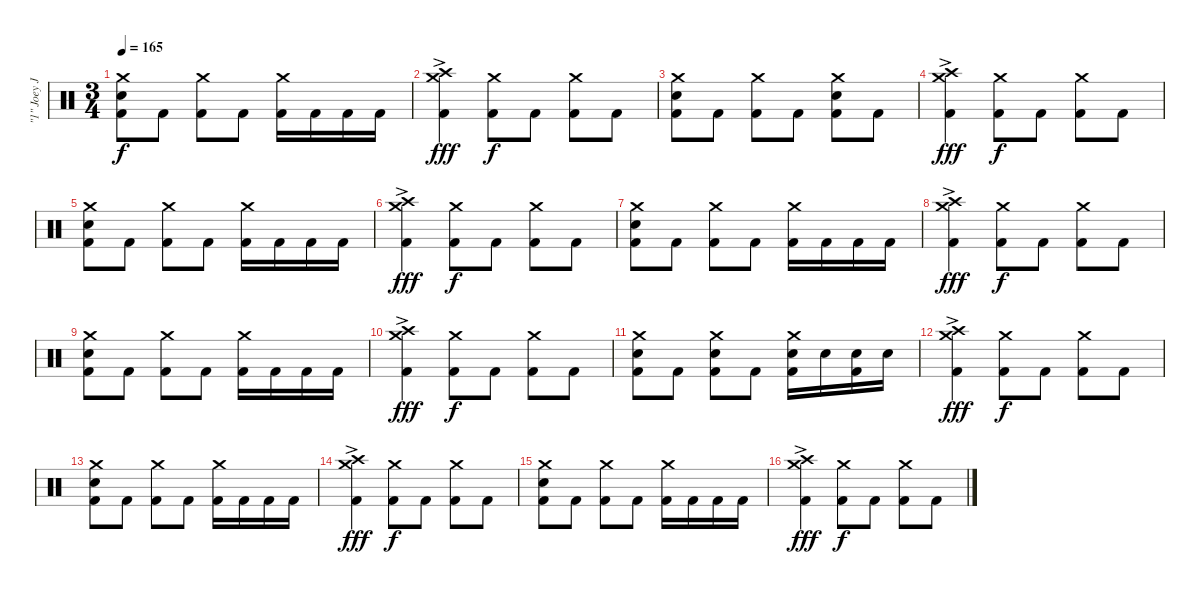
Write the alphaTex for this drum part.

\track ("\"1\" Joey Jordison (Drums)" "\"1\" Joey J") {instrument percussion}
\staff {score}
\articulation defaults
\ts (3 4)
\tempo 165
\clef neutral
\ks c
("Crash medium (hit)" "Electric Snare (hit)" "Kick (hit) 2").8{dy f} "Kick (hit) 2".8 ("Crash medium (hit)" "Kick (hit) 2").8 "Kick (hit) 2".8 ("Crash medium (hit)" "Kick (hit) 2").16 "Kick (hit) 2".16 "Kick (hit) 2".16 "Kick (hit) 2".16 |
("Crash high (hit)"{ac} "Crash medium (hit)" "Kick (hit) 2").4{dy fff} ("Crash medium (hit)" "Kick (hit) 2").8{dy f} "Kick (hit) 2".8 ("Crash medium (hit)" "Kick (hit) 2").8 "Kick (hit) 2".8 |
("Crash medium (hit)" "Electric Snare (hit)" "Kick (hit) 2").8 "Kick (hit) 2".8 ("Crash medium (hit)" "Kick (hit) 2").8 "Kick (hit) 2".8 ("Crash medium (hit)" "Electric Snare (hit)" "Kick (hit) 2").8 "Kick (hit) 2".8 |
("Crash high (hit)"{ac} "Crash medium (hit)" "Kick (hit) 2").4{dy fff} ("Crash medium (hit)" "Kick (hit) 2").8{dy f} "Kick (hit) 2".8 ("Crash medium (hit)" "Kick (hit) 2").8 "Kick (hit) 2".8 |
("Crash medium (hit)" "Electric Snare (hit)" "Kick (hit) 2").8 "Kick (hit) 2".8 ("Crash medium (hit)" "Kick (hit) 2").8 "Kick (hit) 2".8 ("Crash medium (hit)" "Kick (hit) 2").16 "Kick (hit) 2".16 "Kick (hit) 2".16 "Kick (hit) 2".16 |
("Crash high (hit)"{ac} "Crash medium (hit)" "Kick (hit) 2").4{dy fff} ("Crash medium (hit)" "Kick (hit) 2").8{dy f} "Kick (hit) 2".8 ("Crash medium (hit)" "Kick (hit) 2").8 "Kick (hit) 2".8 |
("Crash medium (hit)" "Electric Snare (hit)" "Kick (hit) 2").8 "Kick (hit) 2".8 ("Crash medium (hit)" "Kick (hit) 2").8 "Kick (hit) 2".8 ("Crash medium (hit)" "Kick (hit) 2").16 "Kick (hit) 2".16 "Kick (hit) 2".16 "Kick (hit) 2".16 |
("Crash high (hit)"{ac} "Crash medium (hit)" "Kick (hit) 2").4{dy fff} ("Crash medium (hit)" "Kick (hit) 2").8{dy f} "Kick (hit) 2".8 ("Crash medium (hit)" "Kick (hit) 2").8 "Kick (hit) 2".8 |
("Crash medium (hit)" "Electric Snare (hit)" "Kick (hit) 2").8 "Kick (hit) 2".8 ("Crash medium (hit)" "Kick (hit) 2").8 "Kick (hit) 2".8 ("Crash medium (hit)" "Kick (hit) 2").16 "Kick (hit) 2".16 "Kick (hit) 2".16 "Kick (hit) 2".16 |
("Crash high (hit)"{ac} "Crash medium (hit)" "Kick (hit) 2").4{dy fff} ("Crash medium (hit)" "Kick (hit) 2").8{dy f} "Kick (hit) 2".8 ("Crash medium (hit)" "Kick (hit) 2").8 "Kick (hit) 2".8 |
("Crash medium (hit)" "Electric Snare (hit)" "Kick (hit) 2").8 "Kick (hit) 2".8 ("Crash medium (hit)" "Electric Snare (hit)" "Kick (hit) 2").8 "Kick (hit) 2".8 ("Crash medium (hit)" "Electric Snare (hit)" "Kick (hit) 2").16 "Electric Snare (hit)".16 ("Electric Snare (hit)" "Kick (hit) 2").16 "Electric Snare (hit)".16 |
("Crash high (hit)"{ac} "Crash medium (hit)" "Kick (hit) 2").4{dy fff} ("Crash medium (hit)" "Kick (hit) 2").8{dy f} "Kick (hit) 2".8 ("Crash medium (hit)" "Kick (hit) 2").8 "Kick (hit) 2".8 |
("Crash medium (hit)" "Electric Snare (hit)" "Kick (hit) 2").8 "Kick (hit) 2".8 ("Crash medium (hit)" "Kick (hit) 2").8 "Kick (hit) 2".8 ("Crash medium (hit)" "Kick (hit) 2").16 "Kick (hit) 2".16 "Kick (hit) 2".16 "Kick (hit) 2".16 |
("Crash high (hit)"{ac} "Crash medium (hit)" "Kick (hit) 2").4{dy fff} ("Crash medium (hit)" "Kick (hit) 2").8{dy f} "Kick (hit) 2".8 ("Crash medium (hit)" "Kick (hit) 2").8 "Kick (hit) 2".8 |
("Crash medium (hit)" "Electric Snare (hit)" "Kick (hit) 2").8 "Kick (hit) 2".8 ("Crash medium (hit)" "Kick (hit) 2").8 "Kick (hit) 2".8 ("Crash medium (hit)" "Kick (hit) 2").16 "Kick (hit) 2".16 "Kick (hit) 2".16 "Kick (hit) 2".16 |
("Crash high (hit)"{ac} "Crash medium (hit)" "Kick (hit) 2").4{dy fff} ("Crash medium (hit)" "Kick (hit) 2").8{dy f} "Kick (hit) 2".8 ("Crash medium (hit)" "Kick (hit) 2").8 "Kick (hit) 2".8
